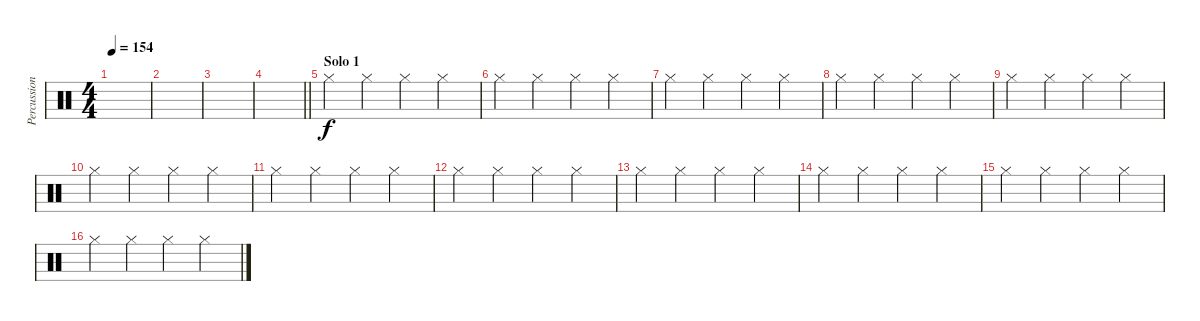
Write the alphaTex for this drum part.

\track ("Percussion" "Percussion") {instrument percussion}
\staff {score}
\articulation defaults
\ts (4 4)
\tempo 154
\clef neutral
\ks c
|
|
|
\barLineRight lightlight
|
\section ("" "Solo 1")
"Hi-Hat (closed)".4 "Hi-Hat (closed)".4 "Hi-Hat (closed)".4 "Hi-Hat (closed)".4 |
"Hi-Hat (closed)".4 "Hi-Hat (closed)".4 "Hi-Hat (closed)".4 "Hi-Hat (closed)".4 |
"Hi-Hat (closed)".4 "Hi-Hat (closed)".4 "Hi-Hat (closed)".4 "Hi-Hat (closed)".4 |
"Hi-Hat (closed)".4 "Hi-Hat (closed)".4 "Hi-Hat (closed)".4 "Hi-Hat (closed)".4 |
"Hi-Hat (closed)".4 "Hi-Hat (closed)".4 "Hi-Hat (closed)".4 "Hi-Hat (closed)".4 |
"Hi-Hat (closed)".4 "Hi-Hat (closed)".4 "Hi-Hat (closed)".4 "Hi-Hat (closed)".4 |
"Hi-Hat (closed)".4 "Hi-Hat (closed)".4 "Hi-Hat (closed)".4 "Hi-Hat (closed)".4 |
"Hi-Hat (closed)".4 "Hi-Hat (closed)".4 "Hi-Hat (closed)".4 "Hi-Hat (closed)".4 |
"Hi-Hat (closed)".4 "Hi-Hat (closed)".4 "Hi-Hat (closed)".4 "Hi-Hat (closed)".4 |
"Hi-Hat (closed)".4 "Hi-Hat (closed)".4 "Hi-Hat (closed)".4 "Hi-Hat (closed)".4 |
"Hi-Hat (closed)".4 "Hi-Hat (closed)".4 "Hi-Hat (closed)".4 "Hi-Hat (closed)".4 |
"Hi-Hat (closed)".4 "Hi-Hat (closed)".4 "Hi-Hat (closed)".4 "Hi-Hat (closed)".4
